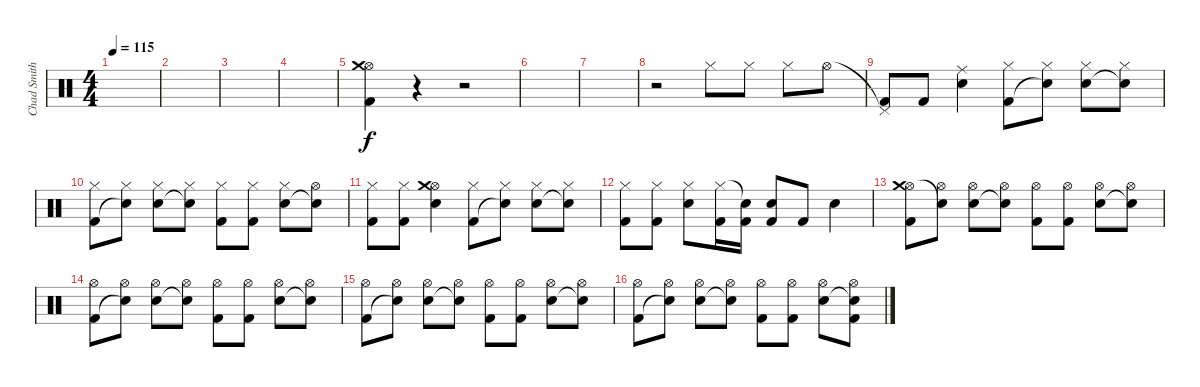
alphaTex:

\track ("Chad Smith" "Chad Smith") {instrument percussion}
\staff {score}
\articulation defaults
\ts (4 4)
\tempo 115
\clef neutral
\ks c
|
|
|
|
("Hi-Hat (open)" "Crash medium (hit)" "Kick (hit) 2").4 r.4 r.2 |
|
|
r.2 "Hi-Hat (closed)".8 "Hi-Hat (closed)".8 "Hi-Hat (closed)".8 "Hi-Hat (open)".8 |
("Pedal Hi-Hat (hit)"{t} "Kick (hit) 2").8 "Kick (hit) 2".8 ("Ride (middle)" "Electric Snare (hit)").4 ("Hi-Hat (closed)" "Kick (hit) 2").8 ("Hi-Hat (closed)" "Snare (hit)"{t}).8 ("Hi-Hat (closed)" "Electric Snare (hit)").8 ("Hi-Hat (closed)" "Snare (hit)"{t}).8 |
("Hi-Hat (closed)" "Kick (hit) 2").8 ("Hi-Hat (closed)" "Snare (hit)"{t}).8 ("Hi-Hat (closed)" "Electric Snare (hit)").8 ("Hi-Hat (closed)" "Snare (hit)"{t}).8 ("Hi-Hat (closed)" "Kick (hit) 2").8 ("Hi-Hat (closed)" "Kick (hit) 2").8 ("Hi-Hat (closed)" "Electric Snare (hit)").8 ("Hi-Hat (open)" "Snare (hit)"{t}).8 |
("Hi-Hat (closed)" "Kick (hit) 2").8 ("Hi-Hat (closed)" "Kick (hit) 2").8 ("Hi-Hat (open)" "Crash medium (hit)" "Electric Snare (hit)").4 ("Hi-Hat (closed)" "Kick (hit) 2").8 ("Hi-Hat (closed)" "Snare (hit)"{t}).8 ("Hi-Hat (closed)" "Electric Snare (hit)").8 ("Hi-Hat (closed)" "Snare (hit)"{t}).8 |
("Hi-Hat (closed)" "Kick (hit) 2").8 ("Hi-Hat (closed)" "Kick (hit) 2").8 ("Hi-Hat (closed)" "Electric Snare (hit)").8 ("Hi-Hat (closed)" "Kick (hit) 2").16 ("Snare (hit)"{t} "Kick (hit) 2").16 ("Electric Snare (hit)" "Kick (hit) 2").8 "Kick (hit) 2".8 "Electric Snare (hit)".4 |
("Hi-Hat (open)" "Crash medium (hit)" "Kick (hit) 2").8 ("Hi-Hat (open)" "Snare (hit)"{t}).8 ("Hi-Hat (open)" "Electric Snare (hit)").8 ("Hi-Hat (open)" "Snare (hit)"{t}).8 ("Hi-Hat (open)" "Kick (hit) 2").8 ("Hi-Hat (open)" "Kick (hit) 2").8 ("Hi-Hat (open)" "Electric Snare (hit)").8 ("Hi-Hat (open)" "Snare (hit)"{t}).8 |
("Hi-Hat (open)" "Kick (hit) 2").8 ("Hi-Hat (open)" "Snare (hit)"{t}).8 ("Hi-Hat (open)" "Electric Snare (hit)").8 ("Hi-Hat (open)" "Snare (hit)"{t}).8 ("Hi-Hat (open)" "Kick (hit) 2").8 ("Hi-Hat (open)" "Kick (hit) 2").8 ("Hi-Hat (open)" "Electric Snare (hit)").8 ("Hi-Hat (open)" "Snare (hit)"{t}).8 |
("Hi-Hat (open)" "Kick (hit) 2").8 ("Hi-Hat (open)" "Snare (hit)"{t}).8 ("Hi-Hat (open)" "Electric Snare (hit)").8 ("Hi-Hat (open)" "Snare (hit)"{t}).8 ("Hi-Hat (open)" "Kick (hit) 2").8 ("Hi-Hat (open)" "Kick (hit) 2").8 ("Hi-Hat (open)" "Electric Snare (hit)").8 ("Hi-Hat (open)" "Snare (hit)"{t}).8 |
("Hi-Hat (open)" "Kick (hit) 2").8 ("Hi-Hat (open)" "Snare (hit)"{t}).8 ("Hi-Hat (open)" "Electric Snare (hit)").8 ("Hi-Hat (open)" "Snare (hit)"{t}).8 ("Hi-Hat (open)" "Kick (hit) 2").8 ("Hi-Hat (open)" "Kick (hit) 2").8 ("Hi-Hat (open)" "Electric Snare (hit)").8 ("Hi-Hat (open)" "Snare (hit)"{t} "Kick (hit) 2").8
